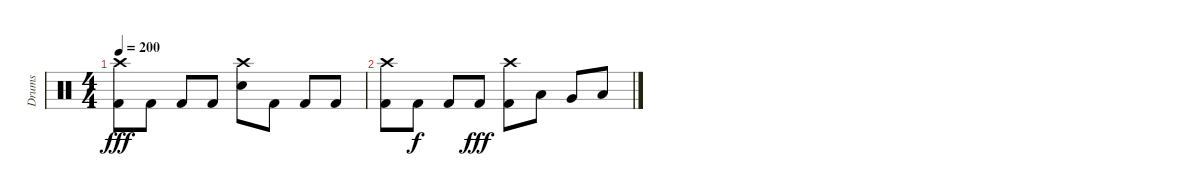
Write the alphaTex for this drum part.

\track ("Drums" "Drums") {instrument percussion}
\staff {score}
\articulation defaults
\ts (4 4)
\tempo 200
\clef neutral
\ks c
("Crash high (hit)" "Kick (hit) 2").8{dy fff} "Kick (hit) 2".8 "Kick (hit) 2".8 "Kick (hit) 2".8 ("Crash high (hit)" "Electric Snare (hit)").8 "Kick (hit) 2".8 "Kick (hit) 2".8 "Kick (hit) 2".8 |
("Crash high (hit)" "Kick (hit) 2").8 "Kick (hit) 2".8{dy f} "Kick (hit) 2".8 "Kick (hit) 2".8{dy fff} ("Crash high (hit)" "Kick (hit) 2").8 "Low Tom (hit)".8 "Very Low Tom (hit)".8 "Low Floor Tom (hit)".8
